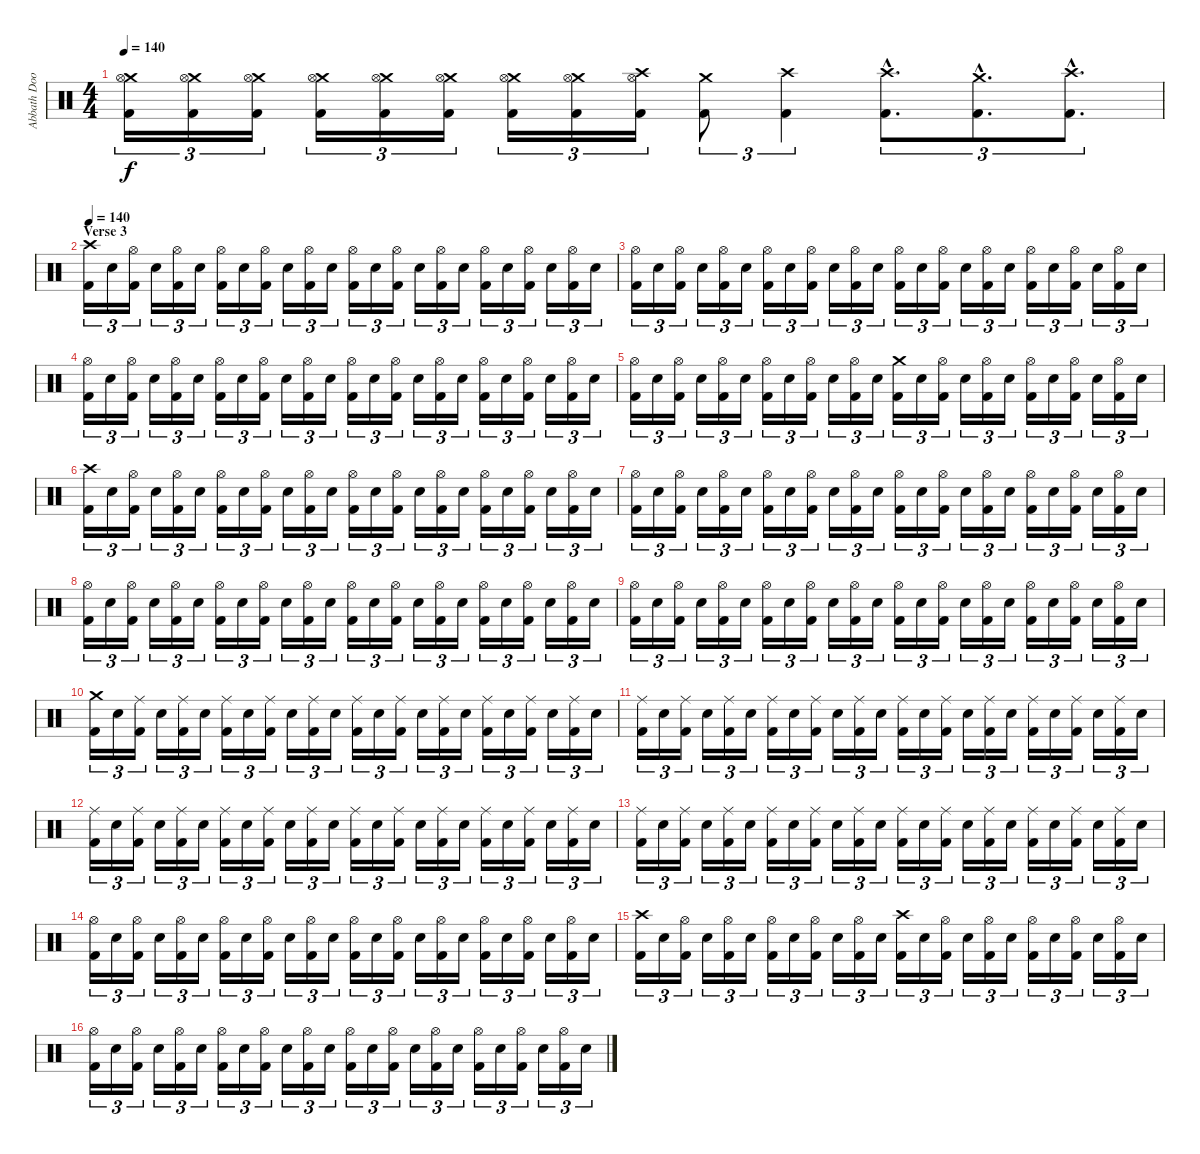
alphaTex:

\track ("Abbath Doom Occulta" "Abbath Doo") {instrument percussion}
\staff {score}
\articulation defaults
\ts (4 4)
\tempo 140
\clef neutral
\ks c
("Crash medium (hit)" "Hi-Hat (open)" "Kick (hit) 2").16{tu (3 2) dy f} ("Crash medium (hit)" "Hi-Hat (open)" "Kick (hit) 2").16{tu (3 2)} ("Crash medium (hit)" "Hi-Hat (open)" "Kick (hit) 2").16{tu (3 2)} ("Crash medium (hit)" "Hi-Hat (open)" "Kick (hit) 2").16{tu (3 2)} ("Crash medium (hit)" "Hi-Hat (open)" "Kick (hit) 2").16{tu (3 2)} ("Crash medium (hit)" "Hi-Hat (open)" "Kick (hit) 2").16{tu (3 2)} ("Crash medium (hit)" "Hi-Hat (open)" "Kick (hit) 2").16{tu (3 2)} ("Crash medium (hit)" "Hi-Hat (open)" "Kick (hit) 2").16{tu (3 2)} ("Crash high (hit)" "Hi-Hat (open)" "Kick (hit) 2").16{tu (3 2)} ("Crash medium (hit)" "Kick (hit) 2").8{tu (3 2)} ("Crash high (hit)" "Kick (hit) 2").4{tu (3 2)} ("Crash high (hit)"{hac} "Kick (hit) 2"{hac}).8{d tu (3 2)} ("Crash medium (hit)"{hac} "Kick (hit) 2"{hac}).8{d tu (3 2)} ("Crash high (hit)"{hac} "Kick (hit) 2"{hac}).8{d tu (3 2)} |
\section ("" "Verse 3")
\tempo 140
("Crash high (hit)" "Kick (hit) 2").16{tu (3 2)} "Electric Snare (hit)".16{tu (3 2)} ("Hi-Hat (open)" "Kick (hit) 2").16{tu (3 2)} "Electric Snare (hit)".16{tu (3 2)} ("Hi-Hat (open)" "Kick (hit) 2").16{tu (3 2)} "Electric Snare (hit)".16{tu (3 2)} ("Hi-Hat (open)" "Kick (hit) 2").16{tu (3 2)} "Electric Snare (hit)".16{tu (3 2)} ("Hi-Hat (open)" "Kick (hit) 2").16{tu (3 2)} "Electric Snare (hit)".16{tu (3 2)} ("Hi-Hat (open)" "Kick (hit) 2").16{tu (3 2)} "Electric Snare (hit)".16{tu (3 2)} ("Hi-Hat (open)" "Kick (hit) 2").16{tu (3 2)} "Electric Snare (hit)".16{tu (3 2)} ("Hi-Hat (open)" "Kick (hit) 2").16{tu (3 2)} "Electric Snare (hit)".16{tu (3 2)} ("Hi-Hat (open)" "Kick (hit) 2").16{tu (3 2)} "Electric Snare (hit)".16{tu (3 2)} ("Hi-Hat (open)" "Kick (hit) 2").16{tu (3 2)} "Electric Snare (hit)".16{tu (3 2)} ("Hi-Hat (open)" "Kick (hit) 2").16{tu (3 2)} "Electric Snare (hit)".16{tu (3 2)} ("Hi-Hat (open)" "Kick (hit) 2").16{tu (3 2)} "Electric Snare (hit)".16{tu (3 2)} |
("Hi-Hat (open)" "Kick (hit) 2").16{tu (3 2)} "Electric Snare (hit)".16{tu (3 2)} ("Hi-Hat (open)" "Kick (hit) 2").16{tu (3 2)} "Electric Snare (hit)".16{tu (3 2)} ("Hi-Hat (open)" "Kick (hit) 2").16{tu (3 2)} "Electric Snare (hit)".16{tu (3 2)} ("Hi-Hat (open)" "Kick (hit) 2").16{tu (3 2)} "Electric Snare (hit)".16{tu (3 2)} ("Hi-Hat (open)" "Kick (hit) 2").16{tu (3 2)} "Electric Snare (hit)".16{tu (3 2)} ("Hi-Hat (open)" "Kick (hit) 2").16{tu (3 2)} "Electric Snare (hit)".16{tu (3 2)} ("Hi-Hat (open)" "Kick (hit) 2").16{tu (3 2)} "Electric Snare (hit)".16{tu (3 2)} ("Hi-Hat (open)" "Kick (hit) 2").16{tu (3 2)} "Electric Snare (hit)".16{tu (3 2)} ("Hi-Hat (open)" "Kick (hit) 2").16{tu (3 2)} "Electric Snare (hit)".16{tu (3 2)} ("Hi-Hat (open)" "Kick (hit) 2").16{tu (3 2)} "Electric Snare (hit)".16{tu (3 2)} ("Hi-Hat (open)" "Kick (hit) 2").16{tu (3 2)} "Electric Snare (hit)".16{tu (3 2)} ("Hi-Hat (open)" "Kick (hit) 2").16{tu (3 2)} "Electric Snare (hit)".16{tu (3 2)} |
("Hi-Hat (open)" "Kick (hit) 2").16{tu (3 2)} "Electric Snare (hit)".16{tu (3 2)} ("Hi-Hat (open)" "Kick (hit) 2").16{tu (3 2)} "Electric Snare (hit)".16{tu (3 2)} ("Hi-Hat (open)" "Kick (hit) 2").16{tu (3 2)} "Electric Snare (hit)".16{tu (3 2)} ("Hi-Hat (open)" "Kick (hit) 2").16{tu (3 2)} "Electric Snare (hit)".16{tu (3 2)} ("Hi-Hat (open)" "Kick (hit) 2").16{tu (3 2)} "Electric Snare (hit)".16{tu (3 2)} ("Hi-Hat (open)" "Kick (hit) 2").16{tu (3 2)} "Electric Snare (hit)".16{tu (3 2)} ("Hi-Hat (open)" "Kick (hit) 2").16{tu (3 2)} "Electric Snare (hit)".16{tu (3 2)} ("Hi-Hat (open)" "Kick (hit) 2").16{tu (3 2)} "Electric Snare (hit)".16{tu (3 2)} ("Hi-Hat (open)" "Kick (hit) 2").16{tu (3 2)} "Electric Snare (hit)".16{tu (3 2)} ("Hi-Hat (open)" "Kick (hit) 2").16{tu (3 2)} "Electric Snare (hit)".16{tu (3 2)} ("Hi-Hat (open)" "Kick (hit) 2").16{tu (3 2)} "Electric Snare (hit)".16{tu (3 2)} ("Hi-Hat (open)" "Kick (hit) 2").16{tu (3 2)} "Electric Snare (hit)".16{tu (3 2)} |
("Hi-Hat (open)" "Kick (hit) 2").16{tu (3 2)} "Electric Snare (hit)".16{tu (3 2)} ("Hi-Hat (open)" "Kick (hit) 2").16{tu (3 2)} "Electric Snare (hit)".16{tu (3 2)} ("Hi-Hat (open)" "Kick (hit) 2").16{tu (3 2)} "Electric Snare (hit)".16{tu (3 2)} ("Hi-Hat (open)" "Kick (hit) 2").16{tu (3 2)} "Electric Snare (hit)".16{tu (3 2)} ("Hi-Hat (open)" "Kick (hit) 2").16{tu (3 2)} "Electric Snare (hit)".16{tu (3 2)} ("Hi-Hat (open)" "Kick (hit) 2").16{tu (3 2)} "Electric Snare (hit)".16{tu (3 2)} ("Crash medium (hit)" "Kick (hit) 2").16{tu (3 2)} "Electric Snare (hit)".16{tu (3 2)} ("Hi-Hat (open)" "Kick (hit) 2").16{tu (3 2)} "Electric Snare (hit)".16{tu (3 2)} ("Hi-Hat (open)" "Kick (hit) 2").16{tu (3 2)} "Electric Snare (hit)".16{tu (3 2)} ("Hi-Hat (open)" "Kick (hit) 2").16{tu (3 2)} "Electric Snare (hit)".16{tu (3 2)} ("Hi-Hat (open)" "Kick (hit) 2").16{tu (3 2)} "Electric Snare (hit)".16{tu (3 2)} ("Hi-Hat (open)" "Kick (hit) 2").16{tu (3 2)} "Electric Snare (hit)".16{tu (3 2)} |
("Crash high (hit)" "Kick (hit) 2").16{tu (3 2)} "Electric Snare (hit)".16{tu (3 2)} ("Hi-Hat (open)" "Kick (hit) 2").16{tu (3 2)} "Electric Snare (hit)".16{tu (3 2)} ("Hi-Hat (open)" "Kick (hit) 2").16{tu (3 2)} "Electric Snare (hit)".16{tu (3 2)} ("Hi-Hat (open)" "Kick (hit) 2").16{tu (3 2)} "Electric Snare (hit)".16{tu (3 2)} ("Hi-Hat (open)" "Kick (hit) 2").16{tu (3 2)} "Electric Snare (hit)".16{tu (3 2)} ("Hi-Hat (open)" "Kick (hit) 2").16{tu (3 2)} "Electric Snare (hit)".16{tu (3 2)} ("Hi-Hat (open)" "Kick (hit) 2").16{tu (3 2)} "Electric Snare (hit)".16{tu (3 2)} ("Hi-Hat (open)" "Kick (hit) 2").16{tu (3 2)} "Electric Snare (hit)".16{tu (3 2)} ("Hi-Hat (open)" "Kick (hit) 2").16{tu (3 2)} "Electric Snare (hit)".16{tu (3 2)} ("Hi-Hat (open)" "Kick (hit) 2").16{tu (3 2)} "Electric Snare (hit)".16{tu (3 2)} ("Hi-Hat (open)" "Kick (hit) 2").16{tu (3 2)} "Electric Snare (hit)".16{tu (3 2)} ("Hi-Hat (open)" "Kick (hit) 2").16{tu (3 2)} "Electric Snare (hit)".16{tu (3 2)} |
("Hi-Hat (open)" "Kick (hit) 2").16{tu (3 2)} "Electric Snare (hit)".16{tu (3 2)} ("Hi-Hat (open)" "Kick (hit) 2").16{tu (3 2)} "Electric Snare (hit)".16{tu (3 2)} ("Hi-Hat (open)" "Kick (hit) 2").16{tu (3 2)} "Electric Snare (hit)".16{tu (3 2)} ("Hi-Hat (open)" "Kick (hit) 2").16{tu (3 2)} "Electric Snare (hit)".16{tu (3 2)} ("Hi-Hat (open)" "Kick (hit) 2").16{tu (3 2)} "Electric Snare (hit)".16{tu (3 2)} ("Hi-Hat (open)" "Kick (hit) 2").16{tu (3 2)} "Electric Snare (hit)".16{tu (3 2)} ("Hi-Hat (open)" "Kick (hit) 2").16{tu (3 2)} "Electric Snare (hit)".16{tu (3 2)} ("Hi-Hat (open)" "Kick (hit) 2").16{tu (3 2)} "Electric Snare (hit)".16{tu (3 2)} ("Hi-Hat (open)" "Kick (hit) 2").16{tu (3 2)} "Electric Snare (hit)".16{tu (3 2)} ("Hi-Hat (open)" "Kick (hit) 2").16{tu (3 2)} "Electric Snare (hit)".16{tu (3 2)} ("Hi-Hat (open)" "Kick (hit) 2").16{tu (3 2)} "Electric Snare (hit)".16{tu (3 2)} ("Hi-Hat (open)" "Kick (hit) 2").16{tu (3 2)} "Electric Snare (hit)".16{tu (3 2)} |
("Hi-Hat (open)" "Kick (hit) 2").16{tu (3 2)} "Electric Snare (hit)".16{tu (3 2)} ("Hi-Hat (open)" "Kick (hit) 2").16{tu (3 2)} "Electric Snare (hit)".16{tu (3 2)} ("Hi-Hat (open)" "Kick (hit) 2").16{tu (3 2)} "Electric Snare (hit)".16{tu (3 2)} ("Hi-Hat (open)" "Kick (hit) 2").16{tu (3 2)} "Electric Snare (hit)".16{tu (3 2)} ("Hi-Hat (open)" "Kick (hit) 2").16{tu (3 2)} "Electric Snare (hit)".16{tu (3 2)} ("Hi-Hat (open)" "Kick (hit) 2").16{tu (3 2)} "Electric Snare (hit)".16{tu (3 2)} ("Hi-Hat (open)" "Kick (hit) 2").16{tu (3 2)} "Electric Snare (hit)".16{tu (3 2)} ("Hi-Hat (open)" "Kick (hit) 2").16{tu (3 2)} "Electric Snare (hit)".16{tu (3 2)} ("Hi-Hat (open)" "Kick (hit) 2").16{tu (3 2)} "Electric Snare (hit)".16{tu (3 2)} ("Hi-Hat (open)" "Kick (hit) 2").16{tu (3 2)} "Electric Snare (hit)".16{tu (3 2)} ("Hi-Hat (open)" "Kick (hit) 2").16{tu (3 2)} "Electric Snare (hit)".16{tu (3 2)} ("Hi-Hat (open)" "Kick (hit) 2").16{tu (3 2)} "Electric Snare (hit)".16{tu (3 2)} |
("Hi-Hat (open)" "Kick (hit) 2").16{tu (3 2)} "Electric Snare (hit)".16{tu (3 2)} ("Hi-Hat (open)" "Kick (hit) 2").16{tu (3 2)} "Electric Snare (hit)".16{tu (3 2)} ("Hi-Hat (open)" "Kick (hit) 2").16{tu (3 2)} "Electric Snare (hit)".16{tu (3 2)} ("Hi-Hat (open)" "Kick (hit) 2").16{tu (3 2)} "Electric Snare (hit)".16{tu (3 2)} ("Hi-Hat (open)" "Kick (hit) 2").16{tu (3 2)} "Electric Snare (hit)".16{tu (3 2)} ("Hi-Hat (open)" "Kick (hit) 2").16{tu (3 2)} "Electric Snare (hit)".16{tu (3 2)} ("Hi-Hat (open)" "Kick (hit) 2").16{tu (3 2)} "Electric Snare (hit)".16{tu (3 2)} ("Hi-Hat (open)" "Kick (hit) 2").16{tu (3 2)} "Electric Snare (hit)".16{tu (3 2)} ("Hi-Hat (open)" "Kick (hit) 2").16{tu (3 2)} "Electric Snare (hit)".16{tu (3 2)} ("Hi-Hat (open)" "Kick (hit) 2").16{tu (3 2)} "Electric Snare (hit)".16{tu (3 2)} ("Hi-Hat (open)" "Kick (hit) 2").16{tu (3 2)} "Electric Snare (hit)".16{tu (3 2)} ("Hi-Hat (open)" "Kick (hit) 2").16{tu (3 2)} "Electric Snare (hit)".16{tu (3 2)} |
("Crash medium (hit)" "Kick (hit) 2").16{tu (3 2)} "Electric Snare (hit)".16{tu (3 2)} ("Ride (middle)" "Kick (hit) 2").16{tu (3 2)} "Electric Snare (hit)".16{tu (3 2)} ("Ride (middle)" "Kick (hit) 2").16{tu (3 2)} "Electric Snare (hit)".16{tu (3 2)} ("Ride (middle)" "Kick (hit) 2").16{tu (3 2)} "Electric Snare (hit)".16{tu (3 2)} ("Ride (middle)" "Kick (hit) 2").16{tu (3 2)} "Electric Snare (hit)".16{tu (3 2)} ("Ride (middle)" "Kick (hit) 2").16{tu (3 2)} "Electric Snare (hit)".16{tu (3 2)} ("Ride (middle)" "Kick (hit) 2").16{tu (3 2)} "Electric Snare (hit)".16{tu (3 2)} ("Ride (middle)" "Kick (hit) 2").16{tu (3 2)} "Electric Snare (hit)".16{tu (3 2)} ("Ride (middle)" "Kick (hit) 2").16{tu (3 2)} "Electric Snare (hit)".16{tu (3 2)} ("Ride (middle)" "Kick (hit) 2").16{tu (3 2)} "Electric Snare (hit)".16{tu (3 2)} ("Ride (middle)" "Kick (hit) 2").16{tu (3 2)} "Electric Snare (hit)".16{tu (3 2)} ("Ride (middle)" "Kick (hit) 2").16{tu (3 2)} "Electric Snare (hit)".16{tu (3 2)} |
("Ride (middle)" "Kick (hit) 2").16{tu (3 2)} "Electric Snare (hit)".16{tu (3 2)} ("Ride (middle)" "Kick (hit) 2").16{tu (3 2)} "Electric Snare (hit)".16{tu (3 2)} ("Ride (middle)" "Kick (hit) 2").16{tu (3 2)} "Electric Snare (hit)".16{tu (3 2)} ("Ride (middle)" "Kick (hit) 2").16{tu (3 2)} "Electric Snare (hit)".16{tu (3 2)} ("Ride (middle)" "Kick (hit) 2").16{tu (3 2)} "Electric Snare (hit)".16{tu (3 2)} ("Ride (middle)" "Kick (hit) 2").16{tu (3 2)} "Electric Snare (hit)".16{tu (3 2)} ("Ride (middle)" "Kick (hit) 2").16{tu (3 2)} "Electric Snare (hit)".16{tu (3 2)} ("Ride (middle)" "Kick (hit) 2").16{tu (3 2)} "Electric Snare (hit)".16{tu (3 2)} ("Ride (middle)" "Kick (hit) 2").16{tu (3 2)} "Electric Snare (hit)".16{tu (3 2)} ("Ride (middle)" "Kick (hit) 2").16{tu (3 2)} "Electric Snare (hit)".16{tu (3 2)} ("Ride (middle)" "Kick (hit) 2").16{tu (3 2)} "Electric Snare (hit)".16{tu (3 2)} ("Ride (middle)" "Kick (hit) 2").16{tu (3 2)} "Electric Snare (hit)".16{tu (3 2)} |
("Ride (middle)" "Kick (hit) 2").16{tu (3 2)} "Electric Snare (hit)".16{tu (3 2)} ("Ride (middle)" "Kick (hit) 2").16{tu (3 2)} "Electric Snare (hit)".16{tu (3 2)} ("Ride (middle)" "Kick (hit) 2").16{tu (3 2)} "Electric Snare (hit)".16{tu (3 2)} ("Ride (middle)" "Kick (hit) 2").16{tu (3 2)} "Electric Snare (hit)".16{tu (3 2)} ("Ride (middle)" "Kick (hit) 2").16{tu (3 2)} "Electric Snare (hit)".16{tu (3 2)} ("Ride (middle)" "Kick (hit) 2").16{tu (3 2)} "Electric Snare (hit)".16{tu (3 2)} ("Ride (middle)" "Kick (hit) 2").16{tu (3 2)} "Electric Snare (hit)".16{tu (3 2)} ("Ride (middle)" "Kick (hit) 2").16{tu (3 2)} "Electric Snare (hit)".16{tu (3 2)} ("Ride (middle)" "Kick (hit) 2").16{tu (3 2)} "Electric Snare (hit)".16{tu (3 2)} ("Ride (middle)" "Kick (hit) 2").16{tu (3 2)} "Electric Snare (hit)".16{tu (3 2)} ("Ride (middle)" "Kick (hit) 2").16{tu (3 2)} "Electric Snare (hit)".16{tu (3 2)} ("Ride (middle)" "Kick (hit) 2").16{tu (3 2)} "Electric Snare (hit)".16{tu (3 2)} |
("Ride (middle)" "Kick (hit) 2").16{tu (3 2)} "Electric Snare (hit)".16{tu (3 2)} ("Ride (middle)" "Kick (hit) 2").16{tu (3 2)} "Electric Snare (hit)".16{tu (3 2)} ("Ride (middle)" "Kick (hit) 2").16{tu (3 2)} "Electric Snare (hit)".16{tu (3 2)} ("Ride (middle)" "Kick (hit) 2").16{tu (3 2)} "Electric Snare (hit)".16{tu (3 2)} ("Ride (middle)" "Kick (hit) 2").16{tu (3 2)} "Electric Snare (hit)".16{tu (3 2)} ("Ride (middle)" "Kick (hit) 2").16{tu (3 2)} "Electric Snare (hit)".16{tu (3 2)} ("Ride (middle)" "Kick (hit) 2").16{tu (3 2)} "Electric Snare (hit)".16{tu (3 2)} ("Ride (middle)" "Kick (hit) 2").16{tu (3 2)} "Electric Snare (hit)".16{tu (3 2)} ("Ride (middle)" "Kick (hit) 2").16{tu (3 2)} "Electric Snare (hit)".16{tu (3 2)} ("Ride (middle)" "Kick (hit) 2").16{tu (3 2)} "Electric Snare (hit)".16{tu (3 2)} ("Ride (middle)" "Kick (hit) 2").16{tu (3 2)} "Electric Snare (hit)".16{tu (3 2)} ("Ride (middle)" "Kick (hit) 2").16{tu (3 2)} "Electric Snare (hit)".16{tu (3 2)} |
("Hi-Hat (open)" "Kick (hit) 2").16{tu (3 2)} "Electric Snare (hit)".16{tu (3 2)} ("Hi-Hat (open)" "Kick (hit) 2").16{tu (3 2)} "Electric Snare (hit)".16{tu (3 2)} ("Hi-Hat (open)" "Kick (hit) 2").16{tu (3 2)} "Electric Snare (hit)".16{tu (3 2)} ("Hi-Hat (open)" "Kick (hit) 2").16{tu (3 2)} "Electric Snare (hit)".16{tu (3 2)} ("Hi-Hat (open)" "Kick (hit) 2").16{tu (3 2)} "Electric Snare (hit)".16{tu (3 2)} ("Hi-Hat (open)" "Kick (hit) 2").16{tu (3 2)} "Electric Snare (hit)".16{tu (3 2)} ("Hi-Hat (open)" "Kick (hit) 2").16{tu (3 2)} "Electric Snare (hit)".16{tu (3 2)} ("Hi-Hat (open)" "Kick (hit) 2").16{tu (3 2)} "Electric Snare (hit)".16{tu (3 2)} ("Hi-Hat (open)" "Kick (hit) 2").16{tu (3 2)} "Electric Snare (hit)".16{tu (3 2)} ("Hi-Hat (open)" "Kick (hit) 2").16{tu (3 2)} "Electric Snare (hit)".16{tu (3 2)} ("Hi-Hat (open)" "Kick (hit) 2").16{tu (3 2)} "Electric Snare (hit)".16{tu (3 2)} ("Hi-Hat (open)" "Kick (hit) 2").16{tu (3 2)} "Electric Snare (hit)".16{tu (3 2)} |
("Crash high (hit)" "Kick (hit) 2").16{tu (3 2)} "Electric Snare (hit)".16{tu (3 2)} ("Hi-Hat (open)" "Kick (hit) 2").16{tu (3 2)} "Electric Snare (hit)".16{tu (3 2)} ("Hi-Hat (open)" "Kick (hit) 2").16{tu (3 2)} "Electric Snare (hit)".16{tu (3 2)} ("Hi-Hat (open)" "Kick (hit) 2").16{tu (3 2)} "Electric Snare (hit)".16{tu (3 2)} ("Hi-Hat (open)" "Kick (hit) 2").16{tu (3 2)} "Electric Snare (hit)".16{tu (3 2)} ("Hi-Hat (open)" "Kick (hit) 2").16{tu (3 2)} "Electric Snare (hit)".16{tu (3 2)} ("Crash high (hit)" "Kick (hit) 2").16{tu (3 2)} "Electric Snare (hit)".16{tu (3 2)} ("Hi-Hat (open)" "Kick (hit) 2").16{tu (3 2)} "Electric Snare (hit)".16{tu (3 2)} ("Hi-Hat (open)" "Kick (hit) 2").16{tu (3 2)} "Electric Snare (hit)".16{tu (3 2)} ("Hi-Hat (open)" "Kick (hit) 2").16{tu (3 2)} "Electric Snare (hit)".16{tu (3 2)} ("Hi-Hat (open)" "Kick (hit) 2").16{tu (3 2)} "Electric Snare (hit)".16{tu (3 2)} ("Hi-Hat (open)" "Kick (hit) 2").16{tu (3 2)} "Electric Snare (hit)".16{tu (3 2)} |
("Hi-Hat (open)" "Kick (hit) 2").16{tu (3 2)} "Electric Snare (hit)".16{tu (3 2)} ("Hi-Hat (open)" "Kick (hit) 2").16{tu (3 2)} "Electric Snare (hit)".16{tu (3 2)} ("Hi-Hat (open)" "Kick (hit) 2").16{tu (3 2)} "Electric Snare (hit)".16{tu (3 2)} ("Hi-Hat (open)" "Kick (hit) 2").16{tu (3 2)} "Electric Snare (hit)".16{tu (3 2)} ("Hi-Hat (open)" "Kick (hit) 2").16{tu (3 2)} "Electric Snare (hit)".16{tu (3 2)} ("Hi-Hat (open)" "Kick (hit) 2").16{tu (3 2)} "Electric Snare (hit)".16{tu (3 2)} ("Hi-Hat (open)" "Kick (hit) 2").16{tu (3 2)} "Electric Snare (hit)".16{tu (3 2)} ("Hi-Hat (open)" "Kick (hit) 2").16{tu (3 2)} "Electric Snare (hit)".16{tu (3 2)} ("Hi-Hat (open)" "Kick (hit) 2").16{tu (3 2)} "Electric Snare (hit)".16{tu (3 2)} ("Hi-Hat (open)" "Kick (hit) 2").16{tu (3 2)} "Electric Snare (hit)".16{tu (3 2)} ("Hi-Hat (open)" "Kick (hit) 2").16{tu (3 2)} "Electric Snare (hit)".16{tu (3 2)} ("Hi-Hat (open)" "Kick (hit) 2").16{tu (3 2)} "Electric Snare (hit)".16{tu (3 2)}
